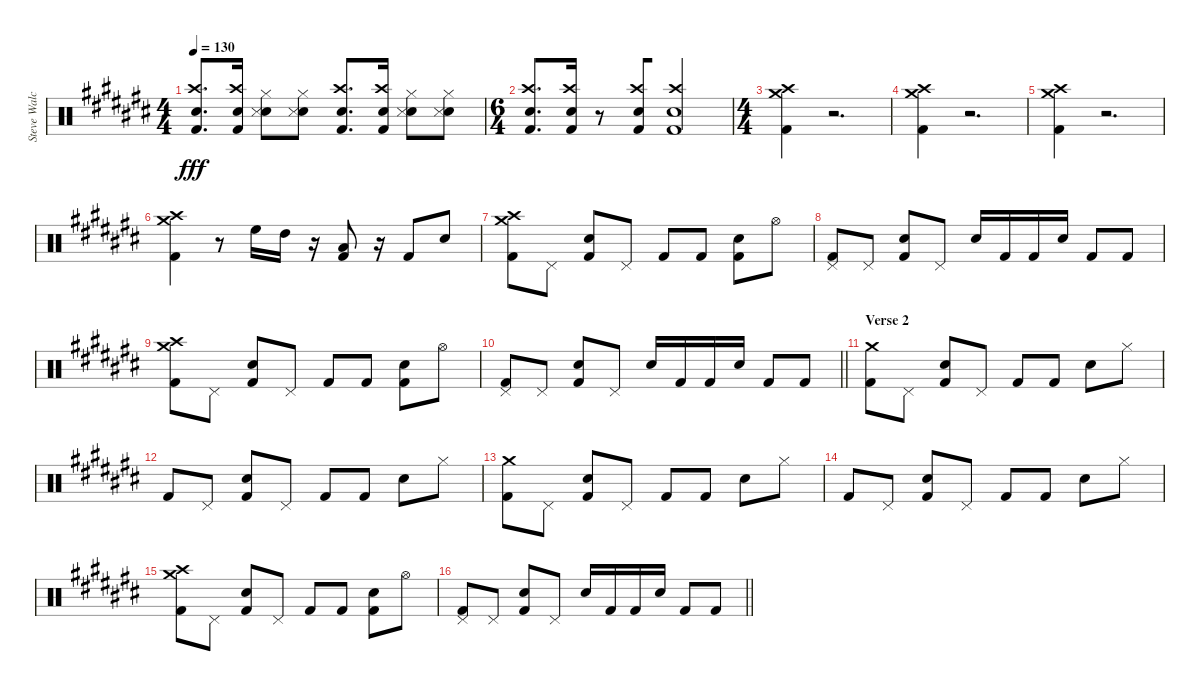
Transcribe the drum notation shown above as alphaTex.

\track ("Steve Walchoz" "Steve Walc") {instrument percussion}
\staff {score}
\articulation defaults
\ts (4 4)
\tempo 130
\clef neutral
\ks c#
("Crash high (hit)" "Snare (hit) 2" "Kick (hit) 2").8{d dy fff beam Up beam merge} ("Crash high (hit)" "Snare (hit) 2" "Kick (hit) 2").16{beam Up} ("Snare (hit) 2" "Snare (side stick) 3" "Hi-Hat (closed)").8 ("Snare (hit) 2" "Snare (side stick) 3" "Hi-Hat (closed)").8 ("Crash high (hit)" "Snare (hit) 2" "Kick (hit) 2").8{d beam Up beam merge} ("Crash high (hit)" "Snare (hit) 2" "Kick (hit) 2").16{beam Up} ("Snare (hit) 2" "Snare (side stick) 3" "Hi-Hat (closed)").8 ("Snare (hit) 2" "Snare (side stick) 3" "Hi-Hat (closed)").8 |
\ts (6 4)
("Crash high (hit)" "Snare (hit) 2" "Kick (hit) 2").8{d beam Up beam merge} ("Crash high (hit)" "Snare (hit) 2" "Kick (hit) 2").16{beam Up} r.8 ("Crash high (hit)" "Snare (hit) 2" "Kick (hit) 2").8{beam Up beam merge} ("Crash high (hit)" "Snare (hit) 2" "Kick (hit) 2").1{beam Up} |
\ts (4 4)
("Crash medium (hit)" "Crash high (hit)" "Kick (hit) 2").4 r.2{d} |
("Crash medium (hit)" "Crash high (hit)" "Kick (hit) 2").4 r.2{d} |
("Crash medium (hit)" "Crash high (hit)" "Kick (hit) 2").4 r.2{d} |
("Crash medium (hit)" "Crash high (hit)" "Kick (hit) 2").4 r.8 "High Floor Tom (hit)".16 "High Tom (hit)".16 r.16 ("Low Tom (hit)" "Kick (hit) 2").8 r.16 "Kick (hit) 2".8 "Snare (hit) 2".8 |
("Crash medium (hit)" "Crash high (hit)" "Kick (hit) 2").8 "Pedal Hi-Hat (hit)".8 ("Snare (hit) 2" "Kick (hit) 2").8 "Pedal Hi-Hat (hit)".8 "Kick (hit) 2".8 "Kick (hit) 2".8 ("Snare (hit) 2" "Kick (hit) 2").8 "Hi-Hat (open)".8 |
("Pedal Hi-Hat (hit)" "Kick (hit) 2").8 "Pedal Hi-Hat (hit)".8 ("Snare (hit) 2" "Kick (hit) 2").8 "Pedal Hi-Hat (hit)".8 "Snare (hit) 2".16 "Kick (hit) 2".16 "Kick (hit) 2".16 "Snare (hit) 2".16 "Kick (hit) 2".8 "Kick (hit) 2".8 |
("Crash medium (hit)" "Crash high (hit)" "Kick (hit) 2").8 "Pedal Hi-Hat (hit)".8 ("Snare (hit) 2" "Kick (hit) 2").8 "Pedal Hi-Hat (hit)".8 "Kick (hit) 2".8 "Kick (hit) 2".8 ("Snare (hit) 2" "Kick (hit) 2").8 "Hi-Hat (open)".8 |
\barLineRight lightlight
("Pedal Hi-Hat (hit)" "Kick (hit) 2").8 "Pedal Hi-Hat (hit)".8 ("Snare (hit) 2" "Kick (hit) 2").8 "Pedal Hi-Hat (hit)".8 "Snare (hit) 2".16 "Kick (hit) 2".16 "Kick (hit) 2".16 "Snare (hit) 2".16 "Kick (hit) 2".8 "Kick (hit) 2".8 |
\section ("" "Verse 2")
("Crash medium (hit)" "Kick (hit) 2").8 "Pedal Hi-Hat (hit)".8 ("Snare (hit) 2" "Kick (hit) 2").8 "Pedal Hi-Hat (hit)".8 "Kick (hit) 2".8 "Kick (hit) 2".8 "Snare (hit) 2".8 "Hi-Hat (closed)".8 |
"Kick (hit) 2".8 "Pedal Hi-Hat (hit)".8 ("Snare (hit) 2" "Kick (hit) 2").8 "Pedal Hi-Hat (hit)".8 "Kick (hit) 2".8 "Kick (hit) 2".8 "Snare (hit) 2".8 "Hi-Hat (closed)".8 |
("Crash medium (hit)" "Kick (hit) 2").8 "Pedal Hi-Hat (hit)".8 ("Snare (hit) 2" "Kick (hit) 2").8 "Pedal Hi-Hat (hit)".8 "Kick (hit) 2".8 "Kick (hit) 2".8 "Snare (hit) 2".8 "Hi-Hat (closed)".8 |
"Kick (hit) 2".8 "Pedal Hi-Hat (hit)".8 ("Snare (hit) 2" "Kick (hit) 2").8 "Pedal Hi-Hat (hit)".8 "Kick (hit) 2".8 "Kick (hit) 2".8 "Snare (hit) 2".8 "Hi-Hat (closed)".8 |
("Crash medium (hit)" "Crash high (hit)" "Kick (hit) 2").8 "Pedal Hi-Hat (hit)".8 ("Snare (hit) 2" "Kick (hit) 2").8 "Pedal Hi-Hat (hit)".8 "Kick (hit) 2".8 "Kick (hit) 2".8 ("Snare (hit) 2" "Kick (hit) 2").8 "Hi-Hat (open)".8 |
\barLineRight lightlight
("Pedal Hi-Hat (hit)" "Kick (hit) 2").8 "Pedal Hi-Hat (hit)".8 ("Snare (hit) 2" "Kick (hit) 2").8 "Pedal Hi-Hat (hit)".8 "Snare (hit) 2".16 "Kick (hit) 2".16 "Kick (hit) 2".16 "Snare (hit) 2".16 "Kick (hit) 2".8 "Kick (hit) 2".8
